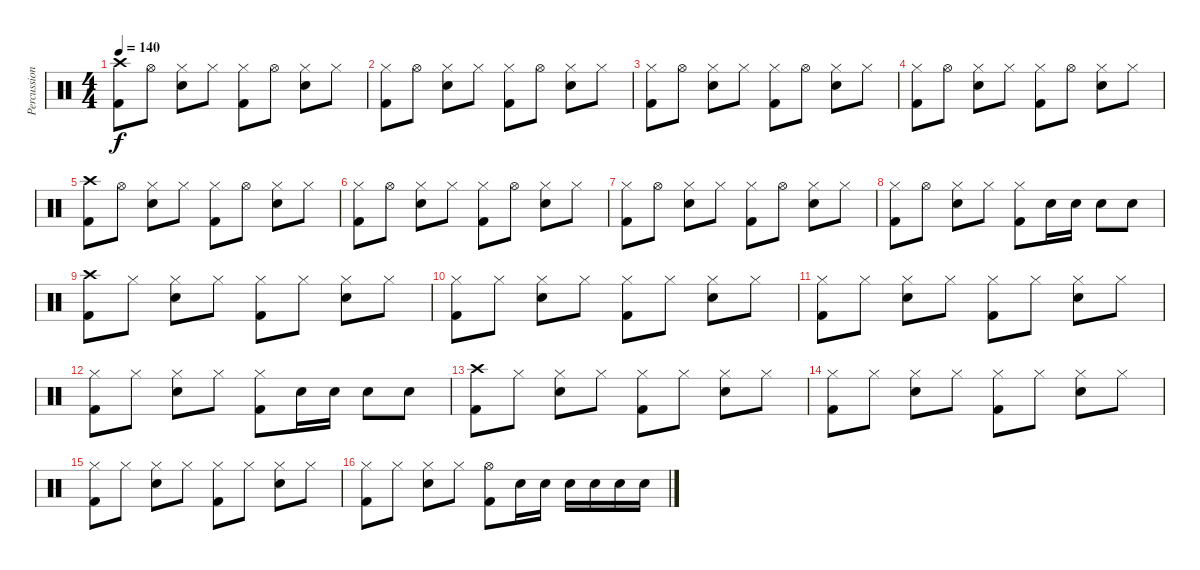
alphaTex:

\track ("Percussion" "Percussion") {instrument percussion}
\staff {score}
\articulation defaults
\ts (4 4)
\tempo 140
\clef neutral
\ks c
("Crash high (hit)" "Kick (hit) 2").8{dy f} "Hi-Hat (open)".8 ("Hi-Hat (closed)" "Electric Snare (hit)").8 "Hi-Hat (closed)".8 ("Hi-Hat (closed)" "Kick (hit) 2").8 "Hi-Hat (open)".8 ("Hi-Hat (closed)" "Electric Snare (hit)").8 "Hi-Hat (closed)".8 |
("Hi-Hat (closed)" "Kick (hit) 2").8 "Hi-Hat (open)".8 ("Hi-Hat (closed)" "Electric Snare (hit)").8 "Hi-Hat (closed)".8 ("Hi-Hat (closed)" "Kick (hit) 2").8 "Hi-Hat (open)".8 ("Hi-Hat (closed)" "Electric Snare (hit)").8 "Hi-Hat (closed)".8 |
("Hi-Hat (closed)" "Kick (hit) 2").8 "Hi-Hat (open)".8 ("Hi-Hat (closed)" "Electric Snare (hit)").8 "Hi-Hat (closed)".8 ("Hi-Hat (closed)" "Kick (hit) 2").8 "Hi-Hat (open)".8 ("Hi-Hat (closed)" "Electric Snare (hit)").8 "Hi-Hat (closed)".8 |
("Hi-Hat (closed)" "Kick (hit) 2").8 "Hi-Hat (open)".8 ("Hi-Hat (closed)" "Electric Snare (hit)").8 "Hi-Hat (closed)".8 ("Hi-Hat (closed)" "Kick (hit) 2").8 "Hi-Hat (open)".8 ("Hi-Hat (closed)" "Electric Snare (hit)").8 "Hi-Hat (closed)".8 |
("Crash high (hit)" "Kick (hit) 2").8 "Hi-Hat (open)".8 ("Hi-Hat (closed)" "Electric Snare (hit)").8 "Hi-Hat (closed)".8 ("Hi-Hat (closed)" "Kick (hit) 2").8 "Hi-Hat (open)".8 ("Hi-Hat (closed)" "Electric Snare (hit)").8 "Hi-Hat (closed)".8 |
("Hi-Hat (closed)" "Kick (hit) 2").8 "Hi-Hat (open)".8 ("Hi-Hat (closed)" "Electric Snare (hit)").8 "Hi-Hat (closed)".8 ("Hi-Hat (closed)" "Kick (hit) 2").8 "Hi-Hat (open)".8 ("Hi-Hat (closed)" "Electric Snare (hit)").8 "Hi-Hat (closed)".8 |
("Hi-Hat (closed)" "Kick (hit) 2").8 "Hi-Hat (open)".8 ("Hi-Hat (closed)" "Electric Snare (hit)").8 "Hi-Hat (closed)".8 ("Hi-Hat (closed)" "Kick (hit) 2").8 "Hi-Hat (open)".8 ("Hi-Hat (closed)" "Electric Snare (hit)").8 "Hi-Hat (closed)".8 |
("Hi-Hat (closed)" "Kick (hit) 2").8 "Hi-Hat (open)".8 ("Hi-Hat (closed)" "Electric Snare (hit)").8 "Hi-Hat (closed)".8 ("Hi-Hat (closed)" "Kick (hit) 2").8 "Electric Snare (hit)".16 "Electric Snare (hit)".16 "Electric Snare (hit)".8 "Electric Snare (hit)".8 |
("Crash high (hit)" "Kick (hit) 2").8 "Hi-Hat (closed)".8 ("Hi-Hat (closed)" "Electric Snare (hit)").8 "Hi-Hat (closed)".8 ("Hi-Hat (closed)" "Kick (hit) 2").8 "Hi-Hat (closed)".8 ("Hi-Hat (closed)" "Electric Snare (hit)").8 "Hi-Hat (closed)".8 |
("Hi-Hat (closed)" "Kick (hit) 2").8 "Hi-Hat (closed)".8 ("Hi-Hat (closed)" "Electric Snare (hit)").8 "Hi-Hat (closed)".8 ("Hi-Hat (closed)" "Kick (hit) 2").8 "Hi-Hat (closed)".8 ("Hi-Hat (closed)" "Electric Snare (hit)").8 "Hi-Hat (closed)".8 |
("Hi-Hat (closed)" "Kick (hit) 2").8 "Hi-Hat (closed)".8 ("Hi-Hat (closed)" "Electric Snare (hit)").8 "Hi-Hat (closed)".8 ("Hi-Hat (closed)" "Kick (hit) 2").8 "Hi-Hat (closed)".8 ("Hi-Hat (closed)" "Electric Snare (hit)").8 "Hi-Hat (closed)".8 |
("Hi-Hat (closed)" "Kick (hit) 2").8 "Hi-Hat (closed)".8 ("Hi-Hat (closed)" "Electric Snare (hit)").8 "Hi-Hat (closed)".8 ("Hi-Hat (closed)" "Kick (hit) 2").8 "Electric Snare (hit)".16 "Electric Snare (hit)".16 "Electric Snare (hit)".8 "Electric Snare (hit)".8 |
("Crash high (hit)" "Kick (hit) 2").8 "Hi-Hat (closed)".8 ("Hi-Hat (closed)" "Electric Snare (hit)").8 "Hi-Hat (closed)".8 ("Hi-Hat (closed)" "Kick (hit) 2").8 "Hi-Hat (closed)".8 ("Hi-Hat (closed)" "Electric Snare (hit)").8 "Hi-Hat (closed)".8 |
("Hi-Hat (closed)" "Kick (hit) 2").8 "Hi-Hat (closed)".8 ("Hi-Hat (closed)" "Electric Snare (hit)").8 "Hi-Hat (closed)".8 ("Hi-Hat (closed)" "Kick (hit) 2").8 "Hi-Hat (closed)".8 ("Hi-Hat (closed)" "Electric Snare (hit)").8 "Hi-Hat (closed)".8 |
("Hi-Hat (closed)" "Kick (hit) 2").8 "Hi-Hat (closed)".8 ("Hi-Hat (closed)" "Electric Snare (hit)").8 "Hi-Hat (closed)".8 ("Hi-Hat (closed)" "Kick (hit) 2").8 "Hi-Hat (closed)".8 ("Hi-Hat (closed)" "Electric Snare (hit)").8 "Hi-Hat (closed)".8 |
("Hi-Hat (closed)" "Kick (hit) 2").8 "Hi-Hat (closed)".8 ("Hi-Hat (closed)" "Electric Snare (hit)").8 "Hi-Hat (closed)".8 ("Hi-Hat (open)" "Kick (hit) 2").8 "Electric Snare (hit)".16 "Electric Snare (hit)".16 "Electric Snare (hit)".16 "Electric Snare (hit)".16 "Electric Snare (hit)".16 "Electric Snare (hit)".16
